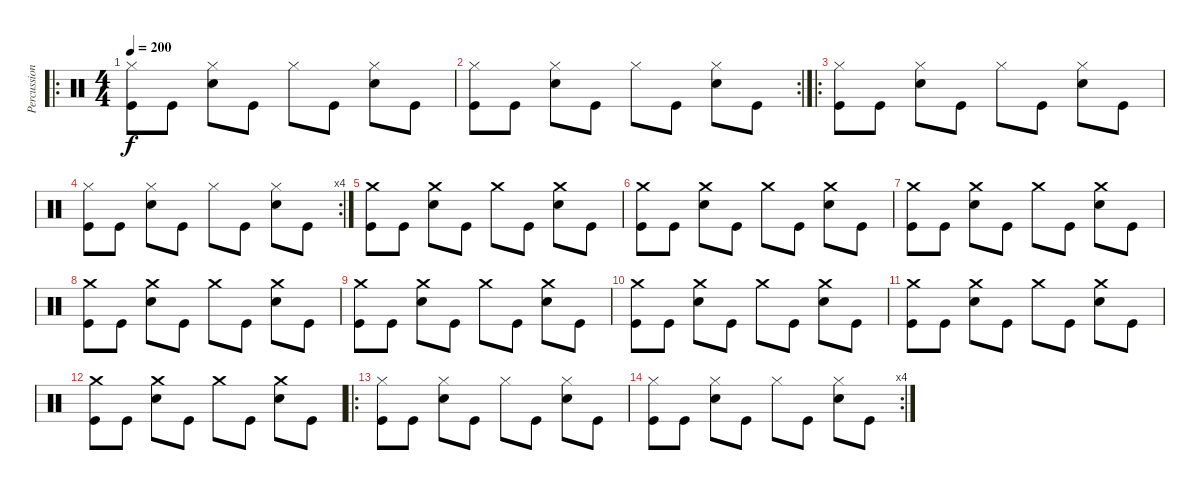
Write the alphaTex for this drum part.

\track ("Percussion" "Percussion") {instrument percussion}
\staff {score}
\articulation defaults
\ro
\ts (4 4)
\tempo 200
\clef neutral
\ks c
("Hi-Hat (closed)" "Kick (hit)").8{dy f} "Kick (hit)".8 ("Hi-Hat (closed)" "Snare (hit) 2").8 "Kick (hit)".8 "Hi-Hat (closed)".8 "Kick (hit)".8 ("Hi-Hat (closed)" "Snare (hit) 2").8 "Kick (hit)".8 |
\rc 2
("Hi-Hat (closed)" "Kick (hit)").8 "Kick (hit)".8 ("Hi-Hat (closed)" "Snare (hit) 2").8 "Kick (hit)".8 "Hi-Hat (closed)".8 "Kick (hit)".8 ("Hi-Hat (closed)" "Snare (hit) 2").8 "Kick (hit)".8 |
\ro
("Hi-Hat (closed)" "Kick (hit)").8 "Kick (hit)".8 ("Hi-Hat (closed)" "Snare (hit) 2").8 "Kick (hit)".8 "Hi-Hat (closed)".8 "Kick (hit)".8 ("Hi-Hat (closed)" "Snare (hit) 2").8 "Kick (hit)".8 |
\rc 4
("Hi-Hat (closed)" "Kick (hit)").8 "Kick (hit)".8 ("Hi-Hat (closed)" "Snare (hit) 2").8 "Kick (hit)".8 "Hi-Hat (closed)".8 "Kick (hit)".8 ("Hi-Hat (closed)" "Snare (hit) 2").8 "Kick (hit)".8 |
("Crash medium (hit)" "Kick (hit)").8 "Kick (hit)".8 ("Crash medium (hit)" "Snare (hit) 2").8 "Kick (hit)".8 "Crash medium (hit)".8 "Kick (hit)".8 ("Crash medium (hit)" "Snare (hit) 2").8 "Kick (hit)".8 |
("Crash medium (hit)" "Kick (hit)").8 "Kick (hit)".8 ("Crash medium (hit)" "Snare (hit) 2").8 "Kick (hit)".8 "Crash medium (hit)".8 "Kick (hit)".8 ("Crash medium (hit)" "Snare (hit) 2").8 "Kick (hit)".8 |
("Crash medium (hit)" "Kick (hit)").8 "Kick (hit)".8 ("Crash medium (hit)" "Snare (hit) 2").8 "Kick (hit)".8 "Crash medium (hit)".8 "Kick (hit)".8 ("Crash medium (hit)" "Snare (hit) 2").8 "Kick (hit)".8 |
("Crash medium (hit)" "Kick (hit)").8 "Kick (hit)".8 ("Crash medium (hit)" "Snare (hit) 2").8 "Kick (hit)".8 "Crash medium (hit)".8 "Kick (hit)".8 ("Crash medium (hit)" "Snare (hit) 2").8 "Kick (hit)".8 |
("Crash medium (hit)" "Kick (hit)").8 "Kick (hit)".8 ("Crash medium (hit)" "Snare (hit) 2").8 "Kick (hit)".8 "Crash medium (hit)".8 "Kick (hit)".8 ("Crash medium (hit)" "Snare (hit) 2").8 "Kick (hit)".8 |
("Crash medium (hit)" "Kick (hit)").8 "Kick (hit)".8 ("Crash medium (hit)" "Snare (hit) 2").8 "Kick (hit)".8 "Crash medium (hit)".8 "Kick (hit)".8 ("Crash medium (hit)" "Snare (hit) 2").8 "Kick (hit)".8 |
("Crash medium (hit)" "Kick (hit)").8 "Kick (hit)".8 ("Crash medium (hit)" "Snare (hit) 2").8 "Kick (hit)".8 "Crash medium (hit)".8 "Kick (hit)".8 ("Crash medium (hit)" "Snare (hit) 2").8 "Kick (hit)".8 |
("Crash medium (hit)" "Kick (hit)").8 "Kick (hit)".8 ("Crash medium (hit)" "Snare (hit) 2").8 "Kick (hit)".8 "Crash medium (hit)".8 "Kick (hit)".8 ("Crash medium (hit)" "Snare (hit) 2").8 "Kick (hit)".8 |
\ro
("Hi-Hat (closed)" "Kick (hit)").8 "Kick (hit)".8 ("Hi-Hat (closed)" "Snare (hit) 2").8 "Kick (hit)".8 "Hi-Hat (closed)".8 "Kick (hit)".8 ("Hi-Hat (closed)" "Snare (hit) 2").8 "Kick (hit)".8 |
\rc 4
("Hi-Hat (closed)" "Kick (hit)").8 "Kick (hit)".8 ("Hi-Hat (closed)" "Snare (hit) 2").8 "Kick (hit)".8 "Hi-Hat (closed)".8 "Kick (hit)".8 ("Hi-Hat (closed)" "Snare (hit) 2").8 "Kick (hit)".8
